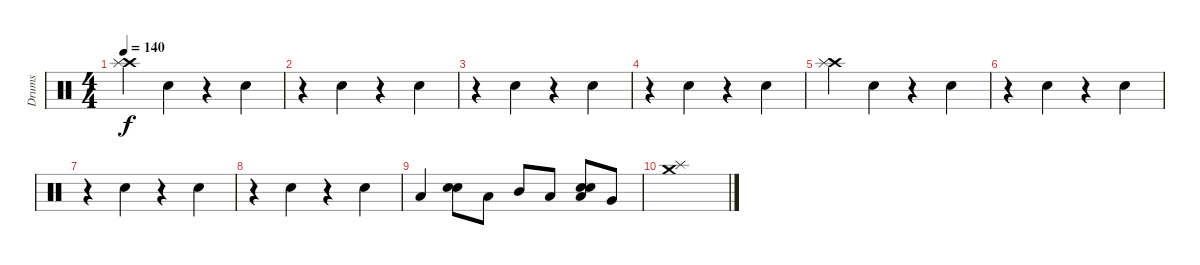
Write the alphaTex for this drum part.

\track ("Drums" "Drums") {instrument percussion}
\staff {score}
\articulation defaults
\ts (4 4)
\tempo 140
\clef neutral
\ks c
("Crash high (hit)" "Splash (hit)").4{dy f} "Snare (hit) 2".4 r.4 "Snare (hit) 2".4 |
r.4 "Snare (hit) 2".4 r.4 "Snare (hit) 2".4 |
r.4 "Snare (hit) 2".4 r.4 "Snare (hit) 2".4 |
r.4 "Snare (hit) 2".4 r.4 "Snare (hit) 2".4 |
("Crash high (hit)" "Splash (hit)").4 "Snare (hit) 2".4 r.4 "Snare (hit) 2".4 |
r.4 "Snare (hit) 2".4 r.4 "Snare (hit) 2".4 |
r.4 "Snare (hit) 2".4 r.4 "Snare (hit) 2".4 |
r.4 "Snare (hit) 2".4 r.4 "Snare (hit) 2".4 |
"Low Tom (hit)".4 ("Snare (hit) 2" "Electric Snare (hit)").8 "Low Tom (hit)".8 "Mid Tom (hit)".8 "Low Tom (hit)".8 ("Snare (hit) 2" "Electric Snare (hit)" "Low Tom (hit)").8 "Very Low Tom (hit)".8 |
("Crash medium (hit)" "Splash (hit)").1
